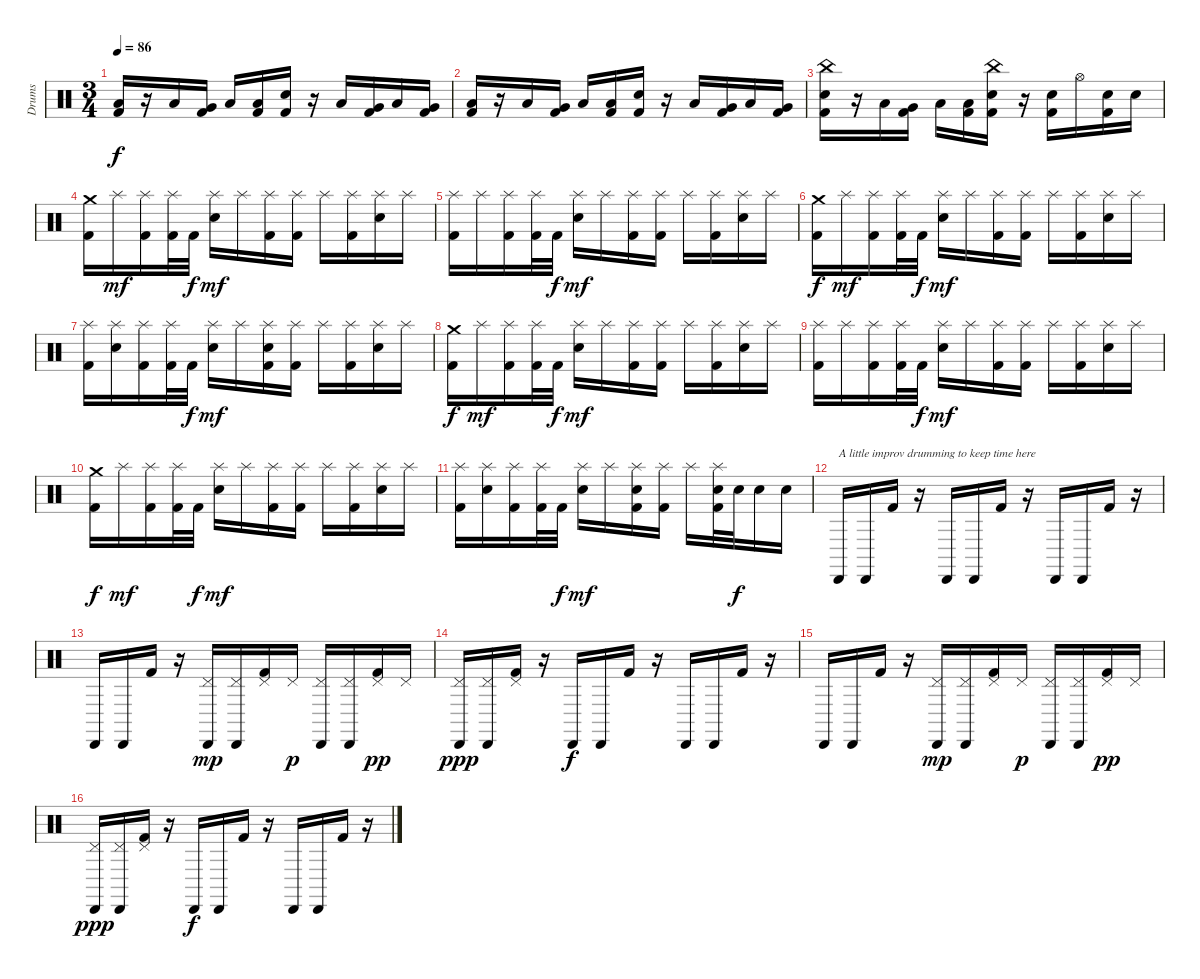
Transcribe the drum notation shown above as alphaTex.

\track ("Drums" "Drums") {instrument percussion}
\staff {score}
\articulation defaults
\ts (3 4)
\tempo 86
\clef neutral
\ks c
("Low Floor Tom (hit)" "Kick (hit) 2").16{dy f} r.16 "Low Floor Tom (hit)".16 ("Very Low Tom (hit)" "Kick (hit) 2").16 "Low Floor Tom (hit)".16 ("Low Tom (hit)" "Kick (hit) 2").16 ("Electric Snare (hit)" "Kick (hit) 2").16 r.16 "Low Floor Tom (hit)".16 ("Very Low Tom (hit)" "Kick (hit) 2").16 "Low Floor Tom (hit)".16 ("Very Low Tom (hit)" "Kick (hit) 2").16 |
("Low Floor Tom (hit)" "Kick (hit) 2").16 r.16 "Low Floor Tom (hit)".16 ("Very Low Tom (hit)" "Kick (hit) 2").16 "Low Floor Tom (hit)".16 ("Low Tom (hit)" "Kick (hit) 2").16 ("Electric Snare (hit)" "Kick (hit) 2").16 r.16 "Low Floor Tom (hit)".16 ("Very Low Tom (hit)" "Kick (hit) 2").16 "Low Floor Tom (hit)".16 ("Very Low Tom (hit)" "Kick (hit) 2").16 |
("China (hit)" "Electric Snare (hit)" "Kick (hit) 2").16 r.16 "Low Floor Tom (hit)".16 ("Very Low Tom (hit)" "Kick (hit) 2").16 "Low Floor Tom (hit)".16 ("Low Tom (hit)" "Kick (hit) 2").16 ("China (hit)" "Electric Snare (hit)" "Kick (hit) 2").16 r.16 ("Electric Snare (hit)" "Kick (hit) 2").16 "Hi-Hat (open)".16 ("Electric Snare (hit)" "Kick (hit) 2").16 "Electric Snare (hit)".16 |
("Crash medium (hit)" "Kick (hit) 2").16 "Splash (hit)".16{dy mf} ("Splash (hit)" "Kick (hit) 2").16 ("Splash (hit)" "Kick (hit) 2").32 "Kick (hit) 2".32{dy f} ("Splash (hit)" "Electric Snare (hit)").16{dy mf} "Splash (hit)".16 ("Splash (hit)" "Kick (hit) 2").16 ("Splash (hit)" "Kick (hit) 2").16 "Splash (hit)".16 ("Splash (hit)" "Kick (hit) 2").16 ("Splash (hit)" "Electric Snare (hit)").16 "Splash (hit)".16 |
("Splash (hit)" "Kick (hit) 2").16 "Splash (hit)".16 ("Splash (hit)" "Kick (hit) 2").16 ("Splash (hit)" "Kick (hit) 2").32 "Kick (hit) 2".32{dy f} ("Splash (hit)" "Electric Snare (hit)").16{dy mf} "Splash (hit)".16 ("Splash (hit)" "Kick (hit) 2").16 ("Splash (hit)" "Kick (hit) 2").16 "Splash (hit)".16 ("Splash (hit)" "Kick (hit) 2").16 ("Splash (hit)" "Electric Snare (hit)").16 "Splash (hit)".16 |
("Crash medium (hit)" "Kick (hit) 2").16{dy f} "Splash (hit)".16{dy mf} ("Splash (hit)" "Kick (hit) 2").16 ("Splash (hit)" "Kick (hit) 2").32 "Kick (hit) 2".32{dy f} ("Splash (hit)" "Electric Snare (hit)").16{dy mf} "Splash (hit)".16 ("Splash (hit)" "Kick (hit) 2").16 ("Splash (hit)" "Kick (hit) 2").16 "Splash (hit)".16 ("Splash (hit)" "Kick (hit) 2").16 ("Splash (hit)" "Electric Snare (hit)").16 "Splash (hit)".16 |
("Splash (hit)" "Kick (hit) 2").16 ("Splash (hit)" "Electric Snare (hit)").16 ("Splash (hit)" "Kick (hit) 2").16 ("Splash (hit)" "Kick (hit) 2").32 "Kick (hit) 2".32{dy f} ("Splash (hit)" "Electric Snare (hit)").16{dy mf} "Splash (hit)".16 ("Splash (hit)" "Electric Snare (hit)" "Kick (hit) 2").16 ("Splash (hit)" "Kick (hit) 2").16 "Splash (hit)".16 ("Splash (hit)" "Kick (hit) 2").16 ("Splash (hit)" "Electric Snare (hit)").16 "Splash (hit)".16 |
("Crash medium (hit)" "Kick (hit) 2").16{dy f} "Splash (hit)".16{dy mf} ("Splash (hit)" "Kick (hit) 2").16 ("Splash (hit)" "Kick (hit) 2").32 "Kick (hit) 2".32{dy f} ("Splash (hit)" "Electric Snare (hit)").16{dy mf} "Splash (hit)".16 ("Splash (hit)" "Kick (hit) 2").16 ("Splash (hit)" "Kick (hit) 2").16 "Splash (hit)".16 ("Splash (hit)" "Kick (hit) 2").16 ("Splash (hit)" "Electric Snare (hit)").16 "Splash (hit)".16 |
("Splash (hit)" "Kick (hit) 2").16 "Splash (hit)".16 ("Splash (hit)" "Kick (hit) 2").16 ("Splash (hit)" "Kick (hit) 2").32 "Kick (hit) 2".32{dy f} ("Splash (hit)" "Electric Snare (hit)").16{dy mf} "Splash (hit)".16 ("Splash (hit)" "Kick (hit) 2").16 ("Splash (hit)" "Kick (hit) 2").16 "Splash (hit)".16 ("Splash (hit)" "Kick (hit) 2").16 ("Splash (hit)" "Electric Snare (hit)").16 "Splash (hit)".16 |
("Crash medium (hit)" "Kick (hit) 2").16{dy f} "Splash (hit)".16{dy mf} ("Splash (hit)" "Kick (hit) 2").16 ("Splash (hit)" "Kick (hit) 2").32 "Kick (hit) 2".32{dy f} ("Splash (hit)" "Electric Snare (hit)").16{dy mf} "Splash (hit)".16 ("Splash (hit)" "Kick (hit) 2").16 ("Splash (hit)" "Kick (hit) 2").16 "Splash (hit)".16 ("Splash (hit)" "Kick (hit) 2").16 ("Splash (hit)" "Electric Snare (hit)").16 "Splash (hit)".16 |
("Splash (hit)" "Kick (hit) 2").16 ("Splash (hit)" "Electric Snare (hit)").16 ("Splash (hit)" "Kick (hit) 2").16 ("Splash (hit)" "Kick (hit) 2").32 "Kick (hit) 2".32{dy f} ("Splash (hit)" "Electric Snare (hit)").16{dy mf} "Splash (hit)".16 ("Splash (hit)" "Electric Snare (hit)" "Kick (hit) 2").16 ("Splash (hit)" "Kick (hit) 2").16 "Splash (hit)".16 ("Splash (hit)" "Electric Snare (hit)" "Kick (hit) 2").32 "Electric Snare (hit)".32{dy f} "Electric Snare (hit)".16 "Electric Snare (hit)".16 |
"Cabasa (hit)".16{txt "A little improv drumming to keep time here"} "Cabasa (hit)".16 "Kick (hit) 2".16 r.16 "Cabasa (hit)".16 "Cabasa (hit)".16 "Kick (hit) 2".16 r.16 "Cabasa (hit)".16 "Cabasa (hit)".16 "Kick (hit) 2".16 r.16 |
"Cabasa (hit)".16 "Cabasa (hit)".16 "Kick (hit) 2".16 r.16 ("Cabasa (hit)" "Pedal Hi-Hat (hit)").16{dy mp} ("Cabasa (hit)" "Pedal Hi-Hat (hit)").16 ("Pedal Hi-Hat (hit)" "Kick (hit) 2").16 "Pedal Hi-Hat (hit)".16{dy p} ("Cabasa (hit)" "Pedal Hi-Hat (hit)").16 ("Cabasa (hit)" "Pedal Hi-Hat (hit)").16 ("Pedal Hi-Hat (hit)" "Kick (hit) 2").16{dy pp} "Pedal Hi-Hat (hit)".16 |
("Cabasa (hit)" "Pedal Hi-Hat (hit)").16{dy ppp} ("Cabasa (hit)" "Pedal Hi-Hat (hit)").16 ("Pedal Hi-Hat (hit)" "Kick (hit) 2").16 r.16 "Cabasa (hit)".16{dy f} "Cabasa (hit)".16 "Kick (hit) 2".16 r.16 "Cabasa (hit)".16 "Cabasa (hit)".16 "Kick (hit) 2".16 r.16 |
"Cabasa (hit)".16 "Cabasa (hit)".16 "Kick (hit) 2".16 r.16 ("Cabasa (hit)" "Pedal Hi-Hat (hit)").16{dy mp} ("Cabasa (hit)" "Pedal Hi-Hat (hit)").16 ("Pedal Hi-Hat (hit)" "Kick (hit) 2").16 "Pedal Hi-Hat (hit)".16{dy p} ("Cabasa (hit)" "Pedal Hi-Hat (hit)").16 ("Cabasa (hit)" "Pedal Hi-Hat (hit)").16 ("Pedal Hi-Hat (hit)" "Kick (hit) 2").16{dy pp} "Pedal Hi-Hat (hit)".16 |
("Cabasa (hit)" "Pedal Hi-Hat (hit)").16{dy ppp} ("Cabasa (hit)" "Pedal Hi-Hat (hit)").16 ("Pedal Hi-Hat (hit)" "Kick (hit) 2").16 r.16 "Cabasa (hit)".16{dy f} "Cabasa (hit)".16 "Kick (hit) 2".16 r.16 "Cabasa (hit)".16 "Cabasa (hit)".16 "Kick (hit) 2".16 r.16
